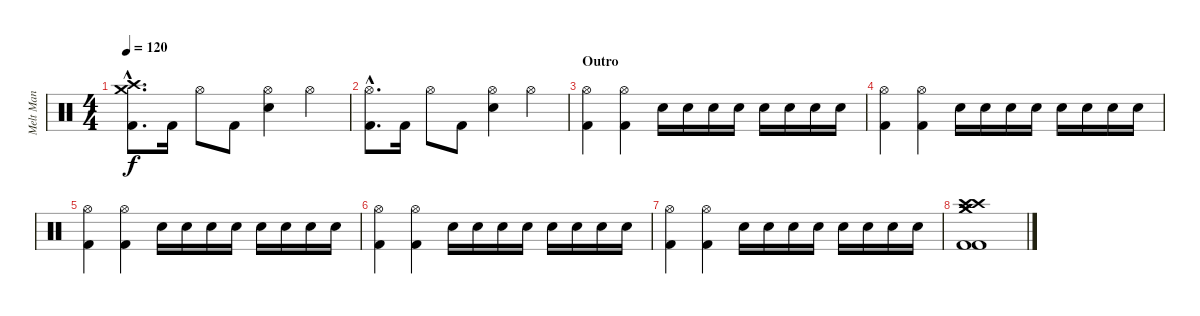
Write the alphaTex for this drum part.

\track ("Melt Man" "Melt Man") {instrument percussion}
\staff {score}
\articulation defaults
\ts (4 4)
\tempo 120
\clef neutral
\ks c
("Crash medium (hit)"{hac} "Crash high (hit)"{hac} "Kick (hit) 2"{hac}).8{d dy f} "Kick (hit) 2".16 "Hi-Hat (open)".8 "Kick (hit) 2".8 ("Hi-Hat (open)" "Snare (hit) 2").4 "Hi-Hat (open)".4 |
("Hi-Hat (open)"{hac} "Kick (hit) 2"{hac}).8{d} "Kick (hit) 2".16 "Hi-Hat (open)".8 "Kick (hit) 2".8 ("Hi-Hat (open)" "Snare (hit) 2").4 "Hi-Hat (open)".4 |
\section ("" "Outro")
("Hi-Hat (open)" "Kick (hit) 2").4 ("Hi-Hat (open)" "Kick (hit) 2").4 "Snare (hit) 2".16 "Snare (hit) 2".16 "Snare (hit) 2".16 "Snare (hit) 2".16 "Snare (hit) 2".16 "Snare (hit) 2".16 "Snare (hit) 2".16 "Snare (hit) 2".16 |
("Hi-Hat (open)" "Kick (hit) 2").4 ("Hi-Hat (open)" "Kick (hit) 2").4 "Snare (hit) 2".16 "Snare (hit) 2".16 "Snare (hit) 2".16 "Snare (hit) 2".16 "Snare (hit) 2".16 "Snare (hit) 2".16 "Snare (hit) 2".16 "Snare (hit) 2".16 |
("Hi-Hat (open)" "Kick (hit) 2").4 ("Hi-Hat (open)" "Kick (hit) 2").4 "Snare (hit) 2".16 "Snare (hit) 2".16 "Snare (hit) 2".16 "Snare (hit) 2".16 "Snare (hit) 2".16 "Snare (hit) 2".16 "Snare (hit) 2".16 "Snare (hit) 2".16 |
("Hi-Hat (open)" "Kick (hit) 2").4 ("Hi-Hat (open)" "Kick (hit) 2").4 "Snare (hit) 2".16 "Snare (hit) 2".16 "Snare (hit) 2".16 "Snare (hit) 2".16 "Snare (hit) 2".16 "Snare (hit) 2".16 "Snare (hit) 2".16 "Snare (hit) 2".16 |
("Hi-Hat (open)" "Kick (hit) 2").4 ("Hi-Hat (open)" "Kick (hit) 2").4 "Snare (hit) 2".16 "Snare (hit) 2".16 "Snare (hit) 2".16 "Snare (hit) 2".16 "Snare (hit) 2".16 "Snare (hit) 2".16 "Snare (hit) 2".16 "Snare (hit) 2".16 |
("Kick (hit) 2" "Crash medium (hit)" "Crash high (hit)" "Kick (hit) 2" "Crash medium (hit)" "Crash high (hit)").1
